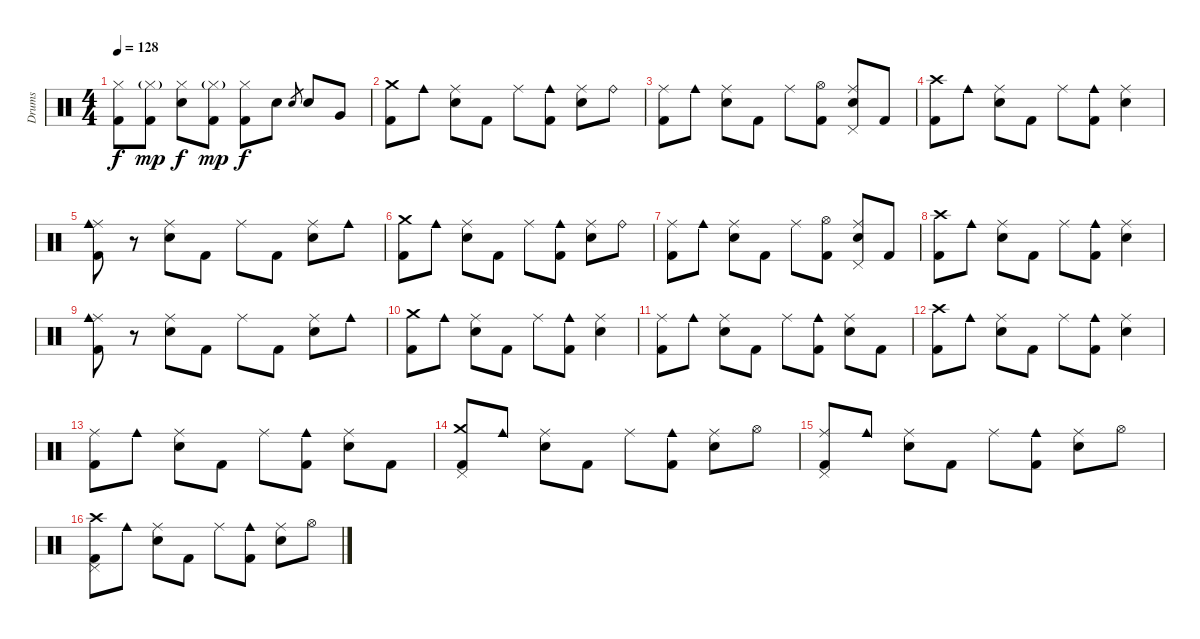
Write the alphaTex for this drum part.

\track ("Drums" "Drums") {instrument percussion}
\staff {score}
\articulation defaults
\ts (4 4)
\tempo 128
\clef neutral
\ks c
("Hi-Hat (closed)" "Kick (hit) 2").8{dy f} ("Hi-Hat (closed)"{g} "Kick (hit) 2").8{dy mp} ("Hi-Hat (closed)" "Snare (hit) 2").8{dy f} ("Hi-Hat (closed)"{g} "Kick (hit) 2").8{dy mp} ("Hi-Hat (closed)" "Kick (hit) 2").8{dy f} "Snare (hit) 2".8 "Snare (hit) 2".8{gr} "Snare (hit) 2".8 "Very Low Tom (hit)".8 |
("Crash medium (hit)" "Kick (hit) 2").8 "Cowbell medium (hit)".8 ("Ride (middle)" "Snare (hit) 2").8 "Kick (hit) 2".8 "Ride (middle)".8 ("Cowbell medium (hit)" "Kick (hit) 2").8 ("Ride (middle)" "Snare (hit) 2").8 "Ride (bell)".8 |
("Ride (middle)" "Kick (hit) 2").8 "Cowbell medium (hit)".8 ("Ride (middle)" "Snare (hit) 2").8 "Kick (hit) 2".8 "Ride (middle)".8 ("Hi-Hat (open)" "Kick (hit) 2").8 ("Ride (middle)" "Pedal Hi-Hat (hit)" "Snare (hit) 2").8 "Kick (hit) 2".8 |
("Crash high (hit)" "Kick (hit) 2").8 "Cowbell medium (hit)".8 ("Ride (middle)" "Snare (hit) 2").8 "Kick (hit) 2".8 "Ride (middle)".8 ("Cowbell medium (hit)" "Kick (hit) 2").8 ("Ride (middle)" "Snare (hit) 2").4 |
("Ride (middle)" "Cowbell medium (hit)" "Kick (hit) 2").8 r.8 ("Ride (middle)" "Snare (hit) 2").8 "Kick (hit) 2".8 "Ride (middle)".8 "Kick (hit) 2".8 ("Ride (middle)" "Snare (hit) 2").8 "Cowbell medium (hit)".8 |
("Crash medium (hit)" "Kick (hit) 2").8 "Cowbell medium (hit)".8 ("Ride (middle)" "Snare (hit) 2").8 "Kick (hit) 2".8 "Ride (middle)".8 ("Cowbell medium (hit)" "Kick (hit) 2").8 ("Ride (middle)" "Snare (hit) 2").8 "Ride (bell)".8 |
("Ride (middle)" "Kick (hit) 2").8 "Cowbell medium (hit)".8 ("Ride (middle)" "Snare (hit) 2").8 "Kick (hit) 2".8 "Ride (middle)".8 ("Hi-Hat (open)" "Kick (hit) 2").8 ("Ride (middle)" "Pedal Hi-Hat (hit)" "Snare (hit) 2").8 "Kick (hit) 2".8 |
("Crash high (hit)" "Kick (hit) 2").8 "Cowbell medium (hit)".8 ("Ride (middle)" "Snare (hit) 2").8 "Kick (hit) 2".8 "Ride (middle)".8 ("Cowbell medium (hit)" "Kick (hit) 2").8 ("Ride (middle)" "Snare (hit) 2").4 |
("Ride (middle)" "Cowbell medium (hit)" "Kick (hit) 2").8 r.8 ("Ride (middle)" "Snare (hit) 2").8 "Kick (hit) 2".8 "Ride (middle)".8 "Kick (hit) 2".8 ("Ride (middle)" "Snare (hit) 2").8 "Cowbell medium (hit)".8 |
("Crash medium (hit)" "Kick (hit) 2").8 "Cowbell medium (hit)".8 ("Ride (middle)" "Snare (hit) 2").8 "Kick (hit) 2".8 "Ride (middle)".8 ("Cowbell medium (hit)" "Kick (hit) 2").8 ("Ride (middle)" "Snare (hit) 2").4 |
("Ride (middle)" "Kick (hit) 2").8 "Cowbell medium (hit)".8 ("Ride (middle)" "Snare (hit) 2").8 "Kick (hit) 2".8 "Ride (middle)".8 ("Cowbell medium (hit)" "Kick (hit) 2").8 ("Ride (middle)" "Snare (hit) 2").8 "Kick (hit) 2".8 |
("Crash high (hit)" "Kick (hit) 2").8 "Cowbell medium (hit)".8 ("Ride (middle)" "Snare (hit) 2").8 "Kick (hit) 2".8 "Ride (middle)".8 ("Cowbell medium (hit)" "Kick (hit) 2").8 ("Ride (middle)" "Snare (hit) 2").4 |
("Ride (middle)" "Kick (hit) 2").8 "Cowbell medium (hit)".8 ("Ride (middle)" "Snare (hit) 2").8 "Kick (hit) 2".8 "Ride (middle)".8 ("Cowbell medium (hit)" "Kick (hit) 2").8 ("Ride (middle)" "Snare (hit) 2").8 "Kick (hit) 2".8 |
("Crash medium (hit)" "Pedal Hi-Hat (hit)" "Kick (hit) 2").8 "Cowbell medium (hit)".8 ("Ride (middle)" "Snare (hit) 2").8 "Kick (hit) 2".8 "Ride (middle)".8 ("Cowbell medium (hit)" "Kick (hit) 2").8 ("Ride (middle)" "Snare (hit) 2").8 "Hi-Hat (open)".8 |
("Ride (middle)" "Pedal Hi-Hat (hit)" "Kick (hit) 2").8 "Cowbell medium (hit)".8 ("Ride (middle)" "Snare (hit) 2").8 "Kick (hit) 2".8 "Ride (middle)".8 ("Cowbell medium (hit)" "Kick (hit) 2").8 ("Ride (middle)" "Snare (hit) 2").8 "Hi-Hat (open)".8 |
("Crash high (hit)" "Pedal Hi-Hat (hit)" "Kick (hit) 2").8 "Cowbell medium (hit)".8 ("Ride (middle)" "Snare (hit) 2").8 "Kick (hit) 2".8 "Ride (middle)".8 ("Cowbell medium (hit)" "Kick (hit) 2").8 ("Ride (middle)" "Snare (hit) 2").8 "Hi-Hat (open)".8
